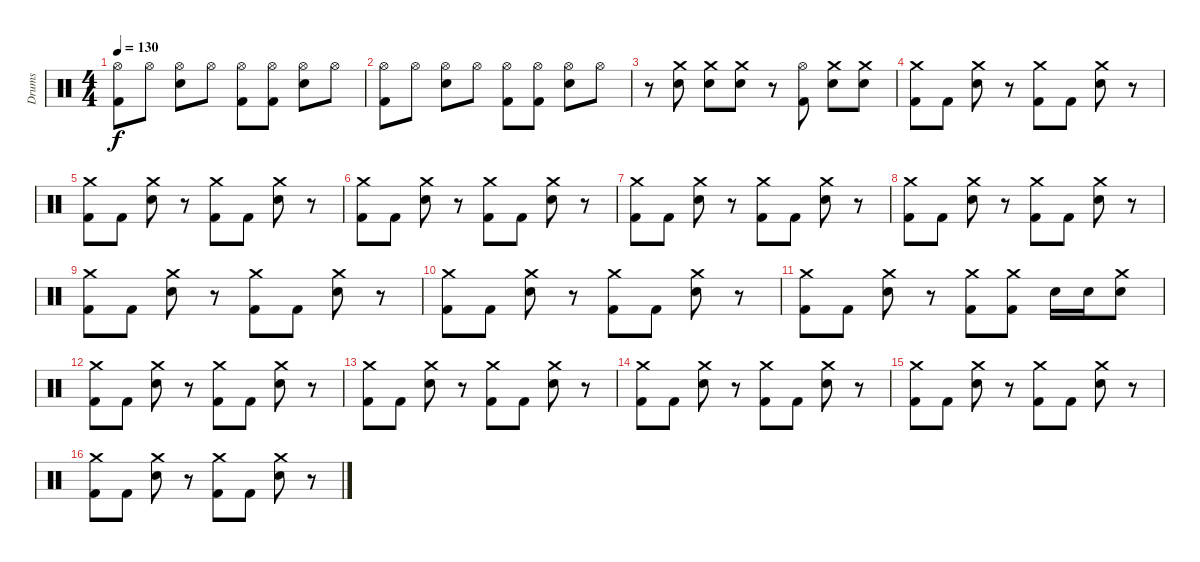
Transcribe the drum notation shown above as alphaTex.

\track ("Drums" "Drums") {instrument percussion}
\staff {score}
\articulation defaults
\ts (4 4)
\tempo 130
\clef neutral
\ks c
("Hi-Hat (open)" "Kick (hit) 2").8{dy f} "Hi-Hat (open)".8 ("Hi-Hat (open)" "Snare (hit) 2").8 "Hi-Hat (open)".8 ("Hi-Hat (open)" "Kick (hit) 2").8 ("Hi-Hat (open)" "Kick (hit) 2").8 ("Hi-Hat (open)" "Snare (hit) 2").8 "Hi-Hat (open)".8 |
("Hi-Hat (open)" "Kick (hit) 2").8 "Hi-Hat (open)".8 ("Hi-Hat (open)" "Snare (hit) 2").8 "Hi-Hat (open)".8 ("Hi-Hat (open)" "Kick (hit) 2").8 ("Hi-Hat (open)" "Kick (hit) 2").8 ("Hi-Hat (open)" "Snare (hit) 2").8 "Hi-Hat (open)".8 |
r.8 ("Crash medium (hit)" "Snare (hit) 2").8 ("Crash medium (hit)" "Snare (hit) 2").8 ("Crash medium (hit)" "Snare (hit) 2").8 r.8 ("Hi-Hat (open)" "Kick (hit) 2").8 ("Crash medium (hit)" "Snare (hit) 2").8 ("Crash medium (hit)" "Snare (hit) 2").8 |
("Crash medium (hit)" "Kick (hit) 2").8 "Kick (hit) 2".8 ("Crash medium (hit)" "Snare (hit) 2").8 r.8 ("Crash medium (hit)" "Kick (hit) 2").8 "Kick (hit) 2".8 ("Crash medium (hit)" "Snare (hit) 2").8 r.8 |
("Crash medium (hit)" "Kick (hit) 2").8 "Kick (hit) 2".8 ("Crash medium (hit)" "Snare (hit) 2").8 r.8 ("Crash medium (hit)" "Kick (hit) 2").8 "Kick (hit) 2".8 ("Crash medium (hit)" "Snare (hit) 2").8 r.8 |
("Crash medium (hit)" "Kick (hit) 2").8 "Kick (hit) 2".8 ("Crash medium (hit)" "Snare (hit) 2").8 r.8 ("Crash medium (hit)" "Kick (hit) 2").8 "Kick (hit) 2".8 ("Crash medium (hit)" "Snare (hit) 2").8 r.8 |
("Crash medium (hit)" "Kick (hit) 2").8 "Kick (hit) 2".8 ("Crash medium (hit)" "Snare (hit) 2").8 r.8 ("Crash medium (hit)" "Kick (hit) 2").8 "Kick (hit) 2".8 ("Crash medium (hit)" "Snare (hit) 2").8 r.8 |
("Crash medium (hit)" "Kick (hit) 2").8 "Kick (hit) 2".8 ("Crash medium (hit)" "Snare (hit) 2").8 r.8 ("Crash medium (hit)" "Kick (hit) 2").8 "Kick (hit) 2".8 ("Crash medium (hit)" "Snare (hit) 2").8 r.8 |
("Crash medium (hit)" "Kick (hit) 2").8 "Kick (hit) 2".8 ("Crash medium (hit)" "Snare (hit) 2").8 r.8 ("Crash medium (hit)" "Kick (hit) 2").8 "Kick (hit) 2".8 ("Crash medium (hit)" "Snare (hit) 2").8 r.8 |
("Crash medium (hit)" "Kick (hit) 2").8 "Kick (hit) 2".8 ("Crash medium (hit)" "Snare (hit) 2").8 r.8 ("Crash medium (hit)" "Kick (hit) 2").8 "Kick (hit) 2".8 ("Crash medium (hit)" "Snare (hit) 2").8 r.8 |
("Crash medium (hit)" "Kick (hit) 2").8 "Kick (hit) 2".8 ("Crash medium (hit)" "Snare (hit) 2").8 r.8 ("Crash medium (hit)" "Kick (hit) 2").8 ("Crash medium (hit)" "Kick (hit) 2").8 "Snare (hit) 2".16 "Snare (hit) 2".16 ("Crash medium (hit)" "Snare (hit) 2").8 |
("Crash medium (hit)" "Kick (hit) 2").8 "Kick (hit) 2".8 ("Crash medium (hit)" "Snare (hit) 2").8 r.8 ("Crash medium (hit)" "Kick (hit) 2").8 "Kick (hit) 2".8 ("Crash medium (hit)" "Snare (hit) 2").8 r.8 |
("Crash medium (hit)" "Kick (hit) 2").8 "Kick (hit) 2".8 ("Crash medium (hit)" "Snare (hit) 2").8 r.8 ("Crash medium (hit)" "Kick (hit) 2").8 "Kick (hit) 2".8 ("Crash medium (hit)" "Snare (hit) 2").8 r.8 |
("Crash medium (hit)" "Kick (hit) 2").8 "Kick (hit) 2".8 ("Crash medium (hit)" "Snare (hit) 2").8 r.8 ("Crash medium (hit)" "Kick (hit) 2").8 "Kick (hit) 2".8 ("Crash medium (hit)" "Snare (hit) 2").8 r.8 |
("Crash medium (hit)" "Kick (hit) 2").8 "Kick (hit) 2".8 ("Crash medium (hit)" "Snare (hit) 2").8 r.8 ("Crash medium (hit)" "Kick (hit) 2").8 "Kick (hit) 2".8 ("Crash medium (hit)" "Snare (hit) 2").8 r.8 |
("Crash medium (hit)" "Kick (hit) 2").8 "Kick (hit) 2".8 ("Crash medium (hit)" "Snare (hit) 2").8 r.8 ("Crash medium (hit)" "Kick (hit) 2").8 "Kick (hit) 2".8 ("Crash medium (hit)" "Snare (hit) 2").8 r.8
